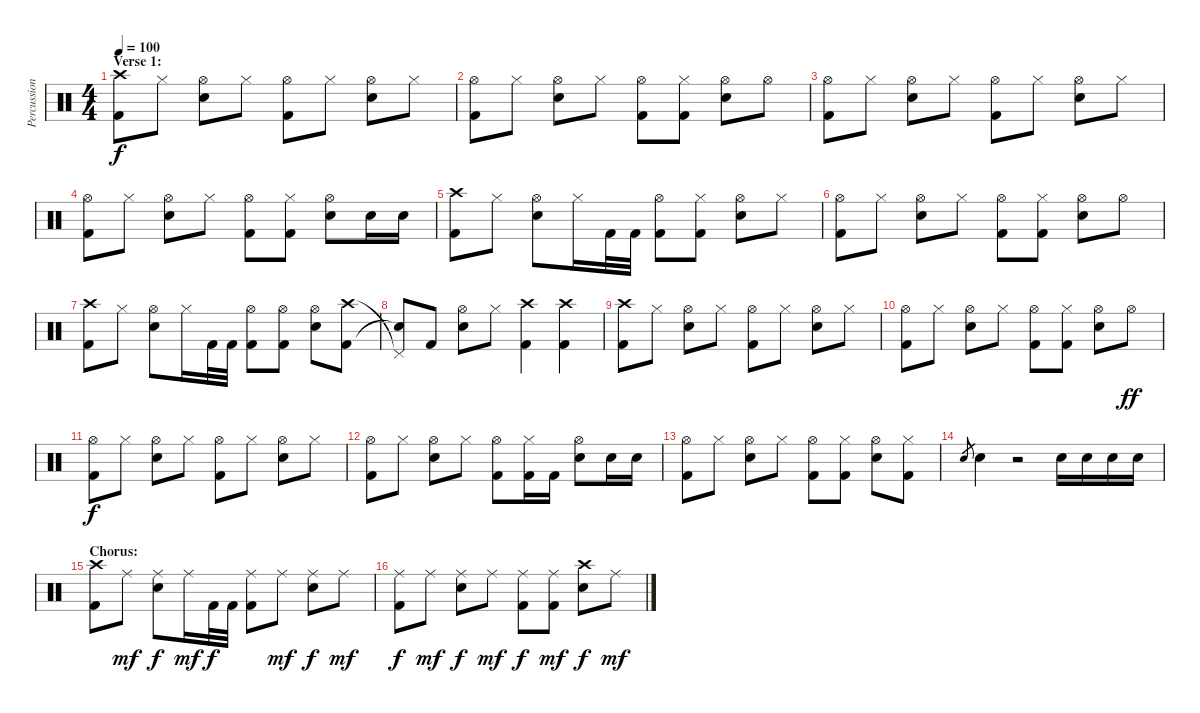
\track ("Percussion" "Percussion") {instrument percussion}
\staff {score}
\articulation defaults
\ts (4 4)
\section ("" "Verse 1:")
\tempo 100
\clef neutral
\ks c
("Crash high (hit)" "Kick (hit) 2").8{dy f} "Hi-Hat (closed)".8 ("Hi-Hat (open)" "Electric Snare (hit)").8 "Hi-Hat (closed)".8 ("Hi-Hat (open)" "Kick (hit) 2").8 "Hi-Hat (closed)".8 ("Hi-Hat (open)" "Electric Snare (hit)").8 "Hi-Hat (closed)".8 |
("Hi-Hat (open)" "Kick (hit) 2").8 "Hi-Hat (closed)".8 ("Hi-Hat (open)" "Electric Snare (hit)").8 "Hi-Hat (closed)".8 ("Hi-Hat (open)" "Kick (hit) 2").8 ("Hi-Hat (closed)" "Kick (hit) 2").8 ("Hi-Hat (open)" "Electric Snare (hit)").8 "Hi-Hat (open)".8 |
("Hi-Hat (open)" "Kick (hit) 2").8 "Hi-Hat (closed)".8 ("Hi-Hat (open)" "Electric Snare (hit)").8 "Hi-Hat (closed)".8 ("Hi-Hat (open)" "Kick (hit) 2").8 "Hi-Hat (closed)".8 ("Hi-Hat (open)" "Electric Snare (hit)").8 "Hi-Hat (closed)".8 |
("Hi-Hat (open)" "Kick (hit) 2").8 "Hi-Hat (closed)".8 ("Hi-Hat (open)" "Electric Snare (hit)").8 "Hi-Hat (closed)".8 ("Hi-Hat (open)" "Kick (hit) 2").8 ("Hi-Hat (closed)" "Kick (hit) 2").8 ("Hi-Hat (open)" "Electric Snare (hit)").8 "Electric Snare (hit)".16 "Electric Snare (hit)".16 |
("Crash high (hit)" "Kick (hit) 2").8 "Hi-Hat (closed)".8 ("Hi-Hat (open)" "Electric Snare (hit)").8 "Hi-Hat (closed)".16 "Kick (hit) 2".32 "Kick (hit) 2".32 ("Hi-Hat (open)" "Kick (hit) 2").8 ("Hi-Hat (closed)" "Kick (hit) 2").8 ("Hi-Hat (open)" "Electric Snare (hit)").8 "Hi-Hat (closed)".8 |
("Hi-Hat (open)" "Kick (hit) 2").8 "Hi-Hat (closed)".8 ("Hi-Hat (open)" "Electric Snare (hit)").8 "Hi-Hat (closed)".8 ("Hi-Hat (open)" "Kick (hit) 2").8 ("Hi-Hat (closed)" "Kick (hit) 2").8 ("Hi-Hat (open)" "Electric Snare (hit)").8 "Hi-Hat (open)".8 |
("Crash high (hit)" "Kick (hit) 2").8 "Hi-Hat (closed)".8 ("Hi-Hat (open)" "Electric Snare (hit)").8 "Hi-Hat (closed)".16 "Kick (hit) 2".32 "Kick (hit) 2".32 ("Hi-Hat (open)" "Kick (hit) 2").8 ("Hi-Hat (open)" "Kick (hit) 2").8 ("Hi-Hat (open)" "Electric Snare (hit)").8 ("Crash high (hit)" "Kick (hit) 2").8 |
("Pedal Hi-Hat (hit)"{t} "Snare (hit)"{t}).8 "Kick (hit) 2".8 ("Hi-Hat (open)" "Electric Snare (hit)").8 "Hi-Hat (closed)".8 ("Crash high (hit)" "Kick (hit) 2").4 ("Crash high (hit)" "Kick (hit) 2").4 |
("Crash high (hit)" "Kick (hit) 2").8 "Hi-Hat (closed)".8 ("Hi-Hat (open)" "Electric Snare (hit)").8 "Hi-Hat (closed)".8 ("Hi-Hat (open)" "Kick (hit) 2").8 "Hi-Hat (closed)".8 ("Hi-Hat (open)" "Electric Snare (hit)").8 "Hi-Hat (closed)".8 |
("Hi-Hat (open)" "Kick (hit) 2").8 "Hi-Hat (closed)".8 ("Hi-Hat (open)" "Electric Snare (hit)").8 "Hi-Hat (closed)".8 ("Hi-Hat (open)" "Kick (hit) 2").8 ("Hi-Hat (closed)" "Kick (hit) 2").8 ("Hi-Hat (open)" "Electric Snare (hit)").8 "Hi-Hat (open)".8{dy ff} |
("Hi-Hat (open)" "Kick (hit) 2").8{dy f} "Hi-Hat (closed)".8 ("Hi-Hat (open)" "Electric Snare (hit)").8 "Hi-Hat (closed)".8 ("Hi-Hat (open)" "Kick (hit) 2").8 "Hi-Hat (closed)".8 ("Hi-Hat (open)" "Electric Snare (hit)").8 "Hi-Hat (closed)".8 |
("Hi-Hat (open)" "Kick (hit) 2").8 "Hi-Hat (closed)".8 ("Hi-Hat (open)" "Electric Snare (hit)").8 "Hi-Hat (closed)".8 ("Hi-Hat (open)" "Kick (hit) 2").8 ("Hi-Hat (closed)" "Kick (hit) 2").16 "Kick (hit) 2".16 ("Hi-Hat (open)" "Electric Snare (hit)").8 "Electric Snare (hit)".16 "Electric Snare (hit)".16 |
("Hi-Hat (open)" "Kick (hit) 2").8 "Hi-Hat (closed)".8 ("Hi-Hat (open)" "Electric Snare (hit)").8 "Hi-Hat (closed)".8 ("Hi-Hat (open)" "Kick (hit) 2").8 ("Hi-Hat (closed)" "Kick (hit) 2").8 ("Hi-Hat (open)" "Electric Snare (hit)").8 ("Hi-Hat (closed)" "Kick (hit) 2").8 |
"Electric Snare (hit)".8{gr} "Electric Snare (hit)".4 r.2 "Electric Snare (hit)".16 "Electric Snare (hit)".16 "Electric Snare (hit)".16 "Electric Snare (hit)".16 |
\section ("" "Chorus:")
("Crash high (hit)" "Kick (hit) 2").8 "Ride (middle)".8{dy mf} ("Ride (middle)" "Electric Snare (hit)").8{dy f} "Ride (middle)".16{dy mf} "Kick (hit) 2".32{dy f} "Kick (hit) 2".32 ("Ride (middle)" "Kick (hit) 2").8 "Ride (middle)".8{dy mf} ("Ride (middle)" "Electric Snare (hit)").8{dy f} "Ride (middle)".8{dy mf} |
("Ride (middle)" "Kick (hit) 2").8{dy f} "Ride (middle)".8{dy mf} ("Ride (middle)" "Electric Snare (hit)").8{dy f} "Ride (middle)".8{dy mf} ("Ride (middle)" "Kick (hit) 2").8{dy f} ("Ride (middle)" "Kick (hit) 2").8{dy mf} ("Crash high (hit)" "Electric Snare (hit)").8{dy f} "Ride (middle)".8{dy mf}
